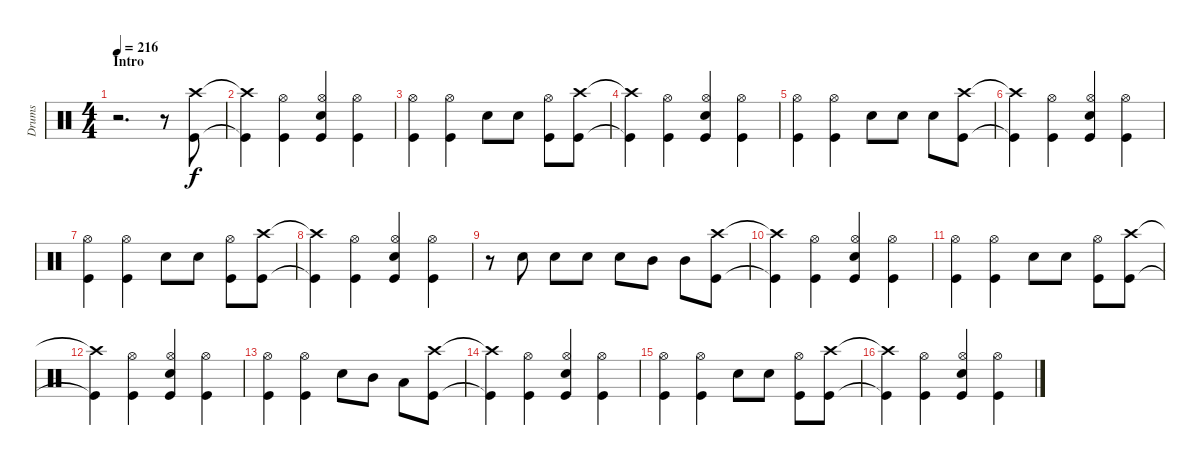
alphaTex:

\track ("Drums" "Drums") {instrument percussion}
\staff {score}
\articulation defaults
\ts (4 4)
\section ("" "Intro")
\tempo 216
\clef neutral
\ks c
r.2{d dy f} r.8 ("Crash high (hit)" "Kick (hit)").8 |
("Crash high (hit)"{t} "Kick (hit)"{t}).4 ("Hi-Hat (open)" "Kick (hit)").4 ("Hi-Hat (open)" "Snare (hit) 2" "Kick (hit)").4 ("Hi-Hat (open)" "Kick (hit)").4 |
("Hi-Hat (open)" "Kick (hit)").4 ("Hi-Hat (open)" "Kick (hit)").4 "Snare (hit) 2".8 "Snare (hit) 2".8 ("Hi-Hat (open)" "Kick (hit)").8 ("Crash high (hit)" "Kick (hit)").8 |
("Crash high (hit)"{t} "Kick (hit)"{t}).4 ("Hi-Hat (open)" "Kick (hit)").4 ("Hi-Hat (open)" "Snare (hit) 2" "Kick (hit)").4 ("Hi-Hat (open)" "Kick (hit)").4 |
("Hi-Hat (open)" "Kick (hit)").4 ("Hi-Hat (open)" "Kick (hit)").4 "Snare (hit) 2".8 "Snare (hit) 2".8 "Snare (hit) 2".8 ("Crash high (hit)" "Kick (hit)").8 |
("Crash high (hit)"{t} "Kick (hit)"{t}).4 ("Hi-Hat (open)" "Kick (hit)").4 ("Hi-Hat (open)" "Snare (hit) 2" "Kick (hit)").4 ("Hi-Hat (open)" "Kick (hit)").4 |
("Hi-Hat (open)" "Kick (hit)").4 ("Hi-Hat (open)" "Kick (hit)").4 "Snare (hit) 2".8 "Snare (hit) 2".8 ("Hi-Hat (open)" "Kick (hit)").8 ("Crash high (hit)" "Kick (hit)").8 |
("Crash high (hit)"{t} "Kick (hit)"{t}).4 ("Hi-Hat (open)" "Kick (hit)").4 ("Hi-Hat (open)" "Snare (hit) 2" "Kick (hit)").4 ("Hi-Hat (open)" "Kick (hit)").4 |
r.8 "Snare (hit) 2".8 "Snare (hit) 2".8 "Snare (hit) 2".8 "Snare (hit) 2".8 "Mid Tom (hit)".8 "Mid Tom (hit)".8 ("Crash high (hit)" "Kick (hit)").8 |
("Crash high (hit)"{t} "Kick (hit)"{t}).4 ("Hi-Hat (open)" "Kick (hit)").4 ("Hi-Hat (open)" "Snare (hit) 2" "Kick (hit)").4 ("Hi-Hat (open)" "Kick (hit)").4 |
("Hi-Hat (open)" "Kick (hit)").4 ("Hi-Hat (open)" "Kick (hit)").4 "Snare (hit) 2".8 "Snare (hit) 2".8 ("Hi-Hat (open)" "Kick (hit)").8 ("Crash high (hit)" "Kick (hit)").8 |
("Crash high (hit)"{t} "Kick (hit)"{t}).4 ("Hi-Hat (open)" "Kick (hit)").4 ("Hi-Hat (open)" "Snare (hit) 2" "Kick (hit)").4 ("Hi-Hat (open)" "Kick (hit)").4 |
("Hi-Hat (open)" "Kick (hit)").4 ("Hi-Hat (open)" "Kick (hit)").4 "Snare (hit) 2".8 "Mid Tom (hit)".8 "Low Tom (hit)".8 ("Crash high (hit)" "Kick (hit)").8 |
("Crash high (hit)"{t} "Kick (hit)"{t}).4 ("Hi-Hat (open)" "Kick (hit)").4 ("Hi-Hat (open)" "Snare (hit) 2" "Kick (hit)").4 ("Hi-Hat (open)" "Kick (hit)").4 |
("Hi-Hat (open)" "Kick (hit)").4 ("Hi-Hat (open)" "Kick (hit)").4 "Snare (hit) 2".8 "Snare (hit) 2".8 ("Hi-Hat (open)" "Kick (hit)").8 ("Crash high (hit)" "Kick (hit)").8 |
("Crash high (hit)"{t} "Kick (hit)"{t}).4 ("Hi-Hat (open)" "Kick (hit)").4 ("Hi-Hat (open)" "Snare (hit) 2" "Kick (hit)").4 ("Hi-Hat (open)" "Kick (hit)").4
